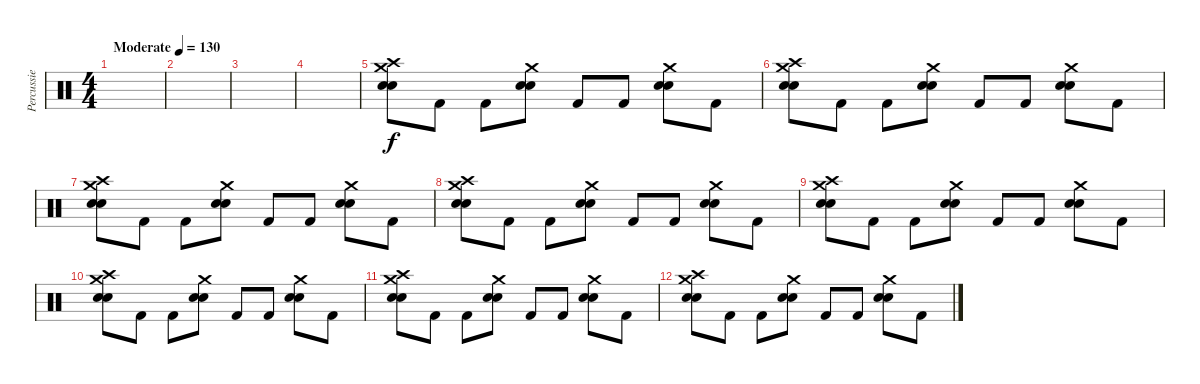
\track ("Percussie" "Percussie") {instrument percussion}
\staff {score}
\articulation defaults
\ts (4 4)
\tempo (130 "Moderate")
\clef neutral
\ks c
|
|
|
|
("Crash medium (hit)" "Crash high (hit)" "Snare (hit) 2" "Electric Snare (hit)").8 "Kick (hit) 2".8 "Kick (hit) 2".8 ("Crash medium (hit)" "Snare (hit) 2" "Electric Snare (hit)").8 "Kick (hit) 2".8 "Kick (hit) 2".8 ("Crash medium (hit)" "Snare (hit) 2" "Electric Snare (hit)").8 "Kick (hit) 2".8 |
("Crash medium (hit)" "Crash high (hit)" "Snare (hit) 2" "Electric Snare (hit)").8 "Kick (hit) 2".8 "Kick (hit) 2".8 ("Crash medium (hit)" "Snare (hit) 2" "Electric Snare (hit)").8 "Kick (hit) 2".8 "Kick (hit) 2".8 ("Crash medium (hit)" "Snare (hit) 2" "Electric Snare (hit)").8 "Kick (hit) 2".8 |
("Crash medium (hit)" "Crash high (hit)" "Snare (hit) 2" "Electric Snare (hit)").8 "Kick (hit) 2".8 "Kick (hit) 2".8 ("Crash medium (hit)" "Snare (hit) 2" "Electric Snare (hit)").8 "Kick (hit) 2".8 "Kick (hit) 2".8 ("Crash medium (hit)" "Snare (hit) 2" "Electric Snare (hit)").8 "Kick (hit) 2".8 |
("Crash medium (hit)" "Crash high (hit)" "Snare (hit) 2" "Electric Snare (hit)").8 "Kick (hit) 2".8 "Kick (hit) 2".8 ("Crash medium (hit)" "Snare (hit) 2" "Electric Snare (hit)").8 "Kick (hit) 2".8 "Kick (hit) 2".8 ("Crash medium (hit)" "Snare (hit) 2" "Electric Snare (hit)").8 "Kick (hit) 2".8 |
("Crash medium (hit)" "Crash high (hit)" "Snare (hit) 2" "Electric Snare (hit)").8 "Kick (hit) 2".8 "Kick (hit) 2".8 ("Crash medium (hit)" "Snare (hit) 2" "Electric Snare (hit)").8 "Kick (hit) 2".8 "Kick (hit) 2".8 ("Crash medium (hit)" "Snare (hit) 2" "Electric Snare (hit)").8 "Kick (hit) 2".8 |
("Crash medium (hit)" "Crash high (hit)" "Snare (hit) 2" "Electric Snare (hit)").8 "Kick (hit) 2".8 "Kick (hit) 2".8 ("Crash medium (hit)" "Snare (hit) 2" "Electric Snare (hit)").8 "Kick (hit) 2".8 "Kick (hit) 2".8 ("Crash medium (hit)" "Snare (hit) 2" "Electric Snare (hit)").8 "Kick (hit) 2".8 |
("Crash medium (hit)" "Crash high (hit)" "Snare (hit) 2" "Electric Snare (hit)").8 "Kick (hit) 2".8 "Kick (hit) 2".8 ("Crash medium (hit)" "Snare (hit) 2" "Electric Snare (hit)").8 "Kick (hit) 2".8 "Kick (hit) 2".8 ("Crash medium (hit)" "Snare (hit) 2" "Electric Snare (hit)").8 "Kick (hit) 2".8 |
("Crash medium (hit)" "Crash high (hit)" "Snare (hit) 2" "Electric Snare (hit)").8 "Kick (hit) 2".8 "Kick (hit) 2".8 ("Crash medium (hit)" "Snare (hit) 2" "Electric Snare (hit)").8 "Kick (hit) 2".8 "Kick (hit) 2".8 ("Crash medium (hit)" "Snare (hit) 2" "Electric Snare (hit)").8 "Kick (hit) 2".8
